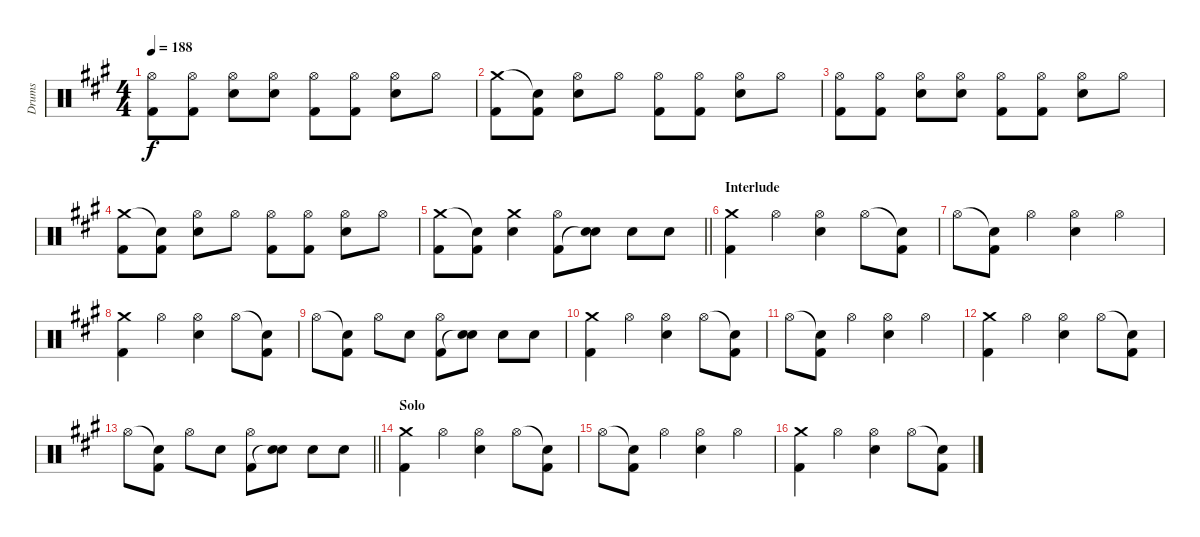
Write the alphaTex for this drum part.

\track ("Drums" "Drums") {instrument percussion}
\staff {score}
\articulation defaults
\ts (4 4)
\tempo 188
\clef neutral
\ks a
("Hi-Hat (open)" "Kick (hit) 2").8{dy f} ("Hi-Hat (open)" "Kick (hit) 2").8 ("Hi-Hat (open)" "Electric Snare (hit)").8 ("Hi-Hat (open)" "Electric Snare (hit)").8 ("Hi-Hat (open)" "Kick (hit) 2").8 ("Hi-Hat (open)" "Kick (hit) 2").8 ("Hi-Hat (open)" "Electric Snare (hit)").8 "Hi-Hat (open)".8 |
("Crash medium (hit)" "Kick (hit) 2").8 ("Snare (hit)"{t} "Kick (hit) 2").8 ("Hi-Hat (open)" "Electric Snare (hit)").8 "Hi-Hat (open)".8 ("Hi-Hat (open)" "Kick (hit) 2").8 ("Hi-Hat (open)" "Kick (hit) 2").8 ("Hi-Hat (open)" "Electric Snare (hit)").8 "Hi-Hat (open)".8 |
("Hi-Hat (open)" "Kick (hit) 2").8 ("Hi-Hat (open)" "Kick (hit) 2").8 ("Hi-Hat (open)" "Electric Snare (hit)").8 ("Hi-Hat (open)" "Electric Snare (hit)").8 ("Hi-Hat (open)" "Kick (hit) 2").8 ("Hi-Hat (open)" "Kick (hit) 2").8 ("Hi-Hat (open)" "Electric Snare (hit)").8 "Hi-Hat (open)".8 |
("Crash medium (hit)" "Kick (hit) 2").8 ("Snare (hit)"{t} "Kick (hit) 2").8 ("Hi-Hat (open)" "Electric Snare (hit)").8 "Hi-Hat (open)".8 ("Hi-Hat (open)" "Kick (hit) 2").8 ("Hi-Hat (open)" "Kick (hit) 2").8 ("Hi-Hat (open)" "Electric Snare (hit)").8 "Hi-Hat (open)".8 |
\barLineRight lightlight
("Crash medium (hit)" "Kick (hit) 2").8 ("Snare (hit)"{t} "Kick (hit) 2").8 ("Crash medium (hit)" "Electric Snare (hit)").4 ("Hi-Hat (open)" "Kick (hit) 2").8 ("Electric Snare (hit)" "Snare (hit)"{t}).8 "Electric Snare (hit)".8 "Electric Snare (hit)".8 |
\section ("" "Interlude")
("Crash medium (hit)" "Kick (hit) 2").4 "Hi-Hat (open)".4 ("Hi-Hat (open)" "Electric Snare (hit)").4 "Hi-Hat (open)".8 ("Snare (hit)"{t} "Kick (hit) 2").8 |
"Hi-Hat (open)".8 ("Snare (hit)"{t} "Kick (hit) 2").8 "Hi-Hat (open)".4 ("Hi-Hat (open)" "Electric Snare (hit)").4 "Hi-Hat (open)".4 |
("Crash medium (hit)" "Kick (hit) 2").4 "Hi-Hat (open)".4 ("Hi-Hat (open)" "Electric Snare (hit)").4 "Hi-Hat (open)".8 ("Snare (hit)"{t} "Kick (hit) 2").8 |
"Hi-Hat (open)".8 ("Snare (hit)"{t} "Kick (hit) 2").8 "Hi-Hat (open)".8 "Electric Snare (hit)".8 ("Hi-Hat (open)" "Kick (hit) 2").8 ("Electric Snare (hit)" "Snare (hit)"{t}).8 "Electric Snare (hit)".8 "Electric Snare (hit)".8 |
("Crash medium (hit)" "Kick (hit) 2").4 "Hi-Hat (open)".4 ("Hi-Hat (open)" "Electric Snare (hit)").4 "Hi-Hat (open)".8 ("Snare (hit)"{t} "Kick (hit) 2").8 |
"Hi-Hat (open)".8 ("Snare (hit)"{t} "Kick (hit) 2").8 "Hi-Hat (open)".4 ("Hi-Hat (open)" "Electric Snare (hit)").4 "Hi-Hat (open)".4 |
("Crash medium (hit)" "Kick (hit) 2").4 "Hi-Hat (open)".4 ("Hi-Hat (open)" "Electric Snare (hit)").4 "Hi-Hat (open)".8 ("Snare (hit)"{t} "Kick (hit) 2").8 |
\barLineRight lightlight "Hi-Hat (open)".8
("Snare (hit)"{t} "Kick (hit) 2").8 "Hi-Hat (open)".8 "Electric Snare (hit)".8 ("Hi-Hat (open)" "Kick (hit) 2").8 ("Electric Snare (hit)" "Snare (hit)"{t}).8 "Electric Snare (hit)".8 "Electric Snare (hit)".8 |
\section ("" "Solo")
("Crash medium (hit)" "Kick (hit) 2").4 "Hi-Hat (open)".4 ("Hi-Hat (open)" "Electric Snare (hit)").4 "Hi-Hat (open)".8 ("Snare (hit)"{t} "Kick (hit) 2").8 |
"Hi-Hat (open)".8 ("Snare (hit)"{t} "Kick (hit) 2").8 "Hi-Hat (open)".4 ("Hi-Hat (open)" "Electric Snare (hit)").4 "Hi-Hat (open)".4 |
("Crash medium (hit)" "Kick (hit) 2").4 "Hi-Hat (open)".4 ("Hi-Hat (open)" "Electric Snare (hit)").4 "Hi-Hat (open)".8 ("Snare (hit)"{t} "Kick (hit) 2").8
